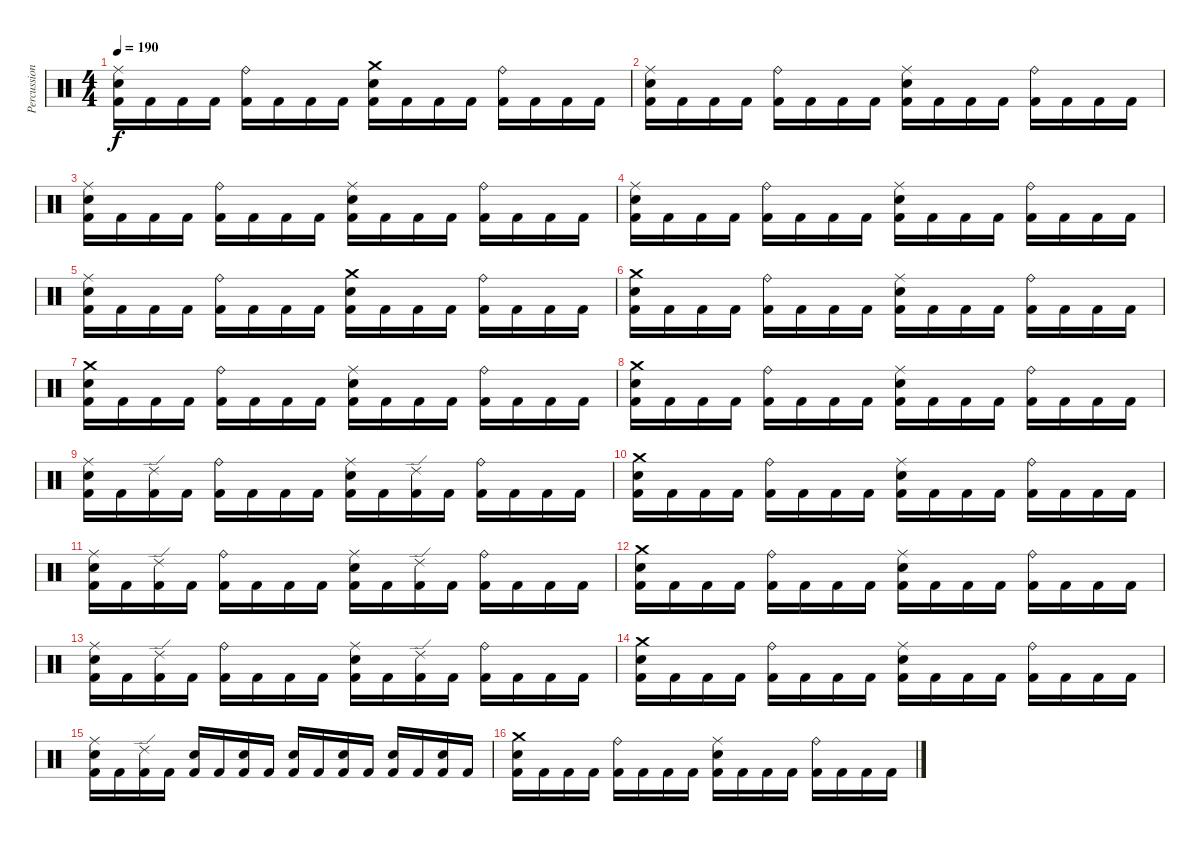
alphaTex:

\track ("Percussion" "Percussion") {instrument percussion}
\staff {score}
\articulation defaults
\ts (4 4)
\tempo 190
\clef neutral
\ks c
("Ride (middle)" "Snare (hit) 2" "Kick (hit) 2").16{dy f} "Kick (hit) 2".16 "Kick (hit) 2".16 "Kick (hit) 2".16 ("Ride (bell)" "Kick (hit) 2").16 "Kick (hit) 2".16 "Kick (hit) 2".16 "Kick (hit) 2".16 ("Crash medium (hit)" "Snare (hit) 2" "Kick (hit) 2").16 "Kick (hit) 2".16 "Kick (hit) 2".16 "Kick (hit) 2".16 ("Ride (bell)" "Kick (hit) 2").16 "Kick (hit) 2".16 "Kick (hit) 2".16 "Kick (hit) 2".16 |
("Ride (middle)" "Snare (hit) 2" "Kick (hit) 2").16 "Kick (hit) 2".16 "Kick (hit) 2".16 "Kick (hit) 2".16 ("Ride (bell)" "Kick (hit) 2").16 "Kick (hit) 2".16 "Kick (hit) 2".16 "Kick (hit) 2".16 ("Ride (middle)" "Snare (hit) 2" "Kick (hit) 2").16 "Kick (hit) 2".16 "Kick (hit) 2".16 "Kick (hit) 2".16 ("Ride (bell)" "Kick (hit) 2").16 "Kick (hit) 2".16 "Kick (hit) 2".16 "Kick (hit) 2".16 |
("Ride (middle)" "Snare (hit) 2" "Kick (hit) 2").16 "Kick (hit) 2".16 "Kick (hit) 2".16 "Kick (hit) 2".16 ("Ride (bell)" "Kick (hit) 2").16 "Kick (hit) 2".16 "Kick (hit) 2".16 "Kick (hit) 2".16 ("Ride (middle)" "Snare (hit) 2" "Kick (hit) 2").16 "Kick (hit) 2".16 "Kick (hit) 2".16 "Kick (hit) 2".16 ("Ride (bell)" "Kick (hit) 2").16 "Kick (hit) 2".16 "Kick (hit) 2".16 "Kick (hit) 2".16 |
("Ride (middle)" "Snare (hit) 2" "Kick (hit) 2").16 "Kick (hit) 2".16 "Kick (hit) 2".16 "Kick (hit) 2".16 ("Ride (bell)" "Kick (hit) 2").16 "Kick (hit) 2".16 "Kick (hit) 2".16 "Kick (hit) 2".16 ("Ride (middle)" "Snare (hit) 2" "Kick (hit) 2").16 "Kick (hit) 2".16 "Kick (hit) 2".16 "Kick (hit) 2".16 ("Ride (bell)" "Kick (hit) 2").16 "Kick (hit) 2".16 "Kick (hit) 2".16 "Kick (hit) 2".16 |
("Ride (middle)" "Snare (hit) 2" "Kick (hit) 2").16 "Kick (hit) 2".16 "Kick (hit) 2".16 "Kick (hit) 2".16 ("Ride (bell)" "Kick (hit) 2").16 "Kick (hit) 2".16 "Kick (hit) 2".16 "Kick (hit) 2".16 ("Crash medium (hit)" "Snare (hit) 2" "Kick (hit) 2").16 "Kick (hit) 2".16 "Kick (hit) 2".16 "Kick (hit) 2".16 ("Ride (bell)" "Kick (hit) 2").16 "Kick (hit) 2".16 "Kick (hit) 2".16 "Kick (hit) 2".16 |
("Crash medium (hit)" "Snare (hit) 2" "Kick (hit) 2").16 "Kick (hit) 2".16 "Kick (hit) 2".16 "Kick (hit) 2".16 ("Ride (bell)" "Kick (hit) 2").16 "Kick (hit) 2".16 "Kick (hit) 2".16 "Kick (hit) 2".16 ("Ride (middle)" "Snare (hit) 2" "Kick (hit) 2").16 "Kick (hit) 2".16 "Kick (hit) 2".16 "Kick (hit) 2".16 ("Ride (bell)" "Kick (hit) 2").16 "Kick (hit) 2".16 "Kick (hit) 2".16 "Kick (hit) 2".16 |
("Crash medium (hit)" "Snare (hit) 2" "Kick (hit) 2").16 "Kick (hit) 2".16 "Kick (hit) 2".16 "Kick (hit) 2".16 ("Ride (bell)" "Kick (hit) 2").16 "Kick (hit) 2".16 "Kick (hit) 2".16 "Kick (hit) 2".16 ("Ride (middle)" "Snare (hit) 2" "Kick (hit) 2").16 "Kick (hit) 2".16 "Kick (hit) 2".16 "Kick (hit) 2".16 ("Ride (bell)" "Kick (hit) 2").16 "Kick (hit) 2".16 "Kick (hit) 2".16 "Kick (hit) 2".16 |
("Crash medium (hit)" "Snare (hit) 2" "Kick (hit) 2").16 "Kick (hit) 2".16 "Kick (hit) 2".16 "Kick (hit) 2".16 ("Ride (bell)" "Kick (hit) 2").16 "Kick (hit) 2".16 "Kick (hit) 2".16 "Kick (hit) 2".16 ("Ride (middle)" "Snare (hit) 2" "Kick (hit) 2").16 "Kick (hit) 2".16 "Kick (hit) 2".16 "Kick (hit) 2".16 ("Ride (bell)" "Kick (hit) 2").16 "Kick (hit) 2".16 "Kick (hit) 2".16 "Kick (hit) 2".16 |
("Ride (middle)" "Snare (hit) 2" "Kick (hit) 2").16 "Kick (hit) 2".16 ("Ride (edge) 2" "Kick (hit) 2").16 "Kick (hit) 2".16 ("Ride (bell)" "Kick (hit) 2").16 "Kick (hit) 2".16 "Kick (hit) 2".16 "Kick (hit) 2".16 ("Ride (middle)" "Snare (hit) 2" "Kick (hit) 2").16 "Kick (hit) 2".16 ("Ride (edge) 2" "Kick (hit) 2").16 "Kick (hit) 2".16 ("Ride (bell)" "Kick (hit) 2").16 "Kick (hit) 2".16 "Kick (hit) 2".16 "Kick (hit) 2".16 |
("Crash medium (hit)" "Snare (hit) 2" "Kick (hit) 2").16 "Kick (hit) 2".16 "Kick (hit) 2".16 "Kick (hit) 2".16 ("Ride (bell)" "Kick (hit) 2").16 "Kick (hit) 2".16 "Kick (hit) 2".16 "Kick (hit) 2".16 ("Ride (middle)" "Snare (hit) 2" "Kick (hit) 2").16 "Kick (hit) 2".16 "Kick (hit) 2".16 "Kick (hit) 2".16 ("Ride (bell)" "Kick (hit) 2").16 "Kick (hit) 2".16 "Kick (hit) 2".16 "Kick (hit) 2".16 |
("Ride (middle)" "Snare (hit) 2" "Kick (hit) 2").16 "Kick (hit) 2".16 ("Ride (edge) 2" "Kick (hit) 2").16 "Kick (hit) 2".16 ("Ride (bell)" "Kick (hit) 2").16 "Kick (hit) 2".16 "Kick (hit) 2".16 "Kick (hit) 2".16 ("Ride (middle)" "Snare (hit) 2" "Kick (hit) 2").16 "Kick (hit) 2".16 ("Ride (edge) 2" "Kick (hit) 2").16 "Kick (hit) 2".16 ("Ride (bell)" "Kick (hit) 2").16 "Kick (hit) 2".16 "Kick (hit) 2".16 "Kick (hit) 2".16 |
("Crash medium (hit)" "Snare (hit) 2" "Kick (hit) 2").16 "Kick (hit) 2".16 "Kick (hit) 2".16 "Kick (hit) 2".16 ("Ride (bell)" "Kick (hit) 2").16 "Kick (hit) 2".16 "Kick (hit) 2".16 "Kick (hit) 2".16 ("Ride (middle)" "Snare (hit) 2" "Kick (hit) 2").16 "Kick (hit) 2".16 "Kick (hit) 2".16 "Kick (hit) 2".16 ("Ride (bell)" "Kick (hit) 2").16 "Kick (hit) 2".16 "Kick (hit) 2".16 "Kick (hit) 2".16 |
("Ride (middle)" "Snare (hit) 2" "Kick (hit) 2").16 "Kick (hit) 2".16 ("Ride (edge) 2" "Kick (hit) 2").16 "Kick (hit) 2".16 ("Ride (bell)" "Kick (hit) 2").16 "Kick (hit) 2".16 "Kick (hit) 2".16 "Kick (hit) 2".16 ("Ride (middle)" "Snare (hit) 2" "Kick (hit) 2").16 "Kick (hit) 2".16 ("Ride (edge) 2" "Kick (hit) 2").16 "Kick (hit) 2".16 ("Ride (bell)" "Kick (hit) 2").16 "Kick (hit) 2".16 "Kick (hit) 2".16 "Kick (hit) 2".16 |
("Crash medium (hit)" "Snare (hit) 2" "Kick (hit) 2").16 "Kick (hit) 2".16 "Kick (hit) 2".16 "Kick (hit) 2".16 ("Ride (bell)" "Kick (hit) 2").16 "Kick (hit) 2".16 "Kick (hit) 2".16 "Kick (hit) 2".16 ("Ride (middle)" "Snare (hit) 2" "Kick (hit) 2").16 "Kick (hit) 2".16 "Kick (hit) 2".16 "Kick (hit) 2".16 ("Ride (bell)" "Kick (hit) 2").16 "Kick (hit) 2".16 "Kick (hit) 2".16 "Kick (hit) 2".16 |
("Ride (middle)" "Snare (hit) 2" "Kick (hit) 2").16 "Kick (hit) 2".16 ("Ride (edge) 2" "Kick (hit) 2").16 "Kick (hit) 2".16 ("Snare (hit) 2" "Kick (hit) 2").16 "Kick (hit) 2".16 ("Snare (hit) 2" "Kick (hit) 2").16 "Kick (hit) 2".16 ("Snare (hit) 2" "Kick (hit) 2").16 "Kick (hit) 2".16 ("Snare (hit) 2" "Kick (hit) 2").16 "Kick (hit) 2".16 ("Snare (hit) 2" "Kick (hit) 2").16 "Kick (hit) 2".16 ("Snare (hit) 2" "Kick (hit) 2").16 "Kick (hit) 2".16 |
("Crash medium (hit)" "Snare (hit) 2" "Kick (hit) 2").16 "Kick (hit) 2".16 "Kick (hit) 2".16 "Kick (hit) 2".16 ("Ride (bell)" "Kick (hit) 2").16 "Kick (hit) 2".16 "Kick (hit) 2".16 "Kick (hit) 2".16 ("Ride (middle)" "Snare (hit) 2" "Kick (hit) 2").16 "Kick (hit) 2".16 "Kick (hit) 2".16 "Kick (hit) 2".16 ("Ride (bell)" "Kick (hit) 2").16 "Kick (hit) 2".16 "Kick (hit) 2".16 "Kick (hit) 2".16
